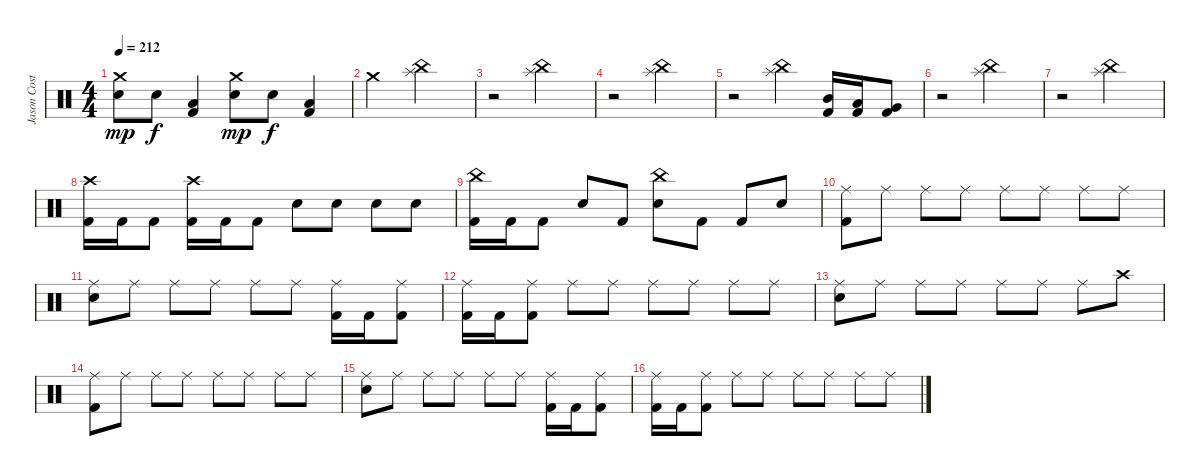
\track ("Jason Costa" "Jason Cost") {instrument percussion}
\staff {score}
\articulation defaults
\ts (4 4)
\tempo 212
\clef neutral
\ks c
("Crash medium (hit)" "Electric Snare (hit)").8{dy mp} "Electric Snare (hit)".8{dy f} ("Low Tom (hit)" "Kick (hit) 2").4 ("Crash medium (hit)" "Electric Snare (hit)").8{dy mp} "Electric Snare (hit)".8{dy f} ("Low Tom (hit)" "Kick (hit) 2").4 |
"Crash medium (hit)".2 ("Splash (hit)" "China (hit)").2 |
r.2 ("Splash (hit)" "China (hit)").2 |
r.2 ("Splash (hit)" "China (hit)").2 |
r.2 ("Splash (hit)" "China (hit)").4 ("Mid Tom (hit)" "Kick (hit) 2").16 ("Low Tom (hit)" "Kick (hit) 2").16 ("Very Low Tom (hit)" "Kick (hit) 2").8 |
r.2 ("Splash (hit)" "China (hit)").2 |
r.2 ("Splash (hit)" "China (hit)").2 |
("Crash high (hit)" "Kick (hit) 2").16 "Kick (hit) 2".16 "Kick (hit) 2".8 ("Crash high (hit)" "Kick (hit) 2").16 "Kick (hit) 2".16 "Kick (hit) 2".8 "Electric Snare (hit)".8 "Electric Snare (hit)".8 "Electric Snare (hit)".8 "Electric Snare (hit)".8 |
("China (hit)" "Kick (hit) 2").16 "Kick (hit) 2".16 "Kick (hit) 2".8 "Electric Snare (hit)".8 "Kick (hit) 2".8 ("China (hit)" "Electric Snare (hit)").8 "Kick (hit) 2".8 "Kick (hit) 2".8 "Electric Snare (hit)".8 |
("Ride (middle)" "Kick (hit) 2").8 "Ride (middle)".8 "Ride (middle)".8 "Ride (middle)".8 "Ride (middle)".8 "Ride (middle)".8 "Ride (middle)".8 "Ride (middle)".8 |
("Ride (middle)" "Electric Snare (hit)").8 "Ride (middle)".8 "Ride (middle)".8 "Ride (middle)".8 "Ride (middle)".8 "Ride (middle)".8 ("Ride (middle)" "Kick (hit) 2").16 "Kick (hit) 2".16 ("Ride (middle)" "Kick (hit) 2").8 |
("Ride (middle)" "Kick (hit) 2").16 "Kick (hit) 2".16 ("Ride (middle)" "Kick (hit) 2").8 "Ride (middle)".8 "Ride (middle)".8 "Ride (middle)".8 "Ride (middle)".8 "Ride (middle)".8 "Ride (middle)".8 |
("Ride (middle)" "Electric Snare (hit)").8 "Ride (middle)".8 "Ride (middle)".8 "Ride (middle)".8 "Ride (middle)".8 "Ride (middle)".8 "Ride (middle)".8 "Crash high (hit)".8 |
("Ride (middle)" "Kick (hit) 2").8 "Ride (middle)".8 "Ride (middle)".8 "Ride (middle)".8 "Ride (middle)".8 "Ride (middle)".8 "Ride (middle)".8 "Ride (middle)".8 |
("Ride (middle)" "Electric Snare (hit)").8 "Ride (middle)".8 "Ride (middle)".8 "Ride (middle)".8 "Ride (middle)".8 "Ride (middle)".8 ("Ride (middle)" "Kick (hit) 2").16 "Kick (hit) 2".16 ("Ride (middle)" "Kick (hit) 2").8 |
("Ride (middle)" "Kick (hit) 2").16 "Kick (hit) 2".16 ("Ride (middle)" "Kick (hit) 2").8 "Ride (middle)".8 "Ride (middle)".8 "Ride (middle)".8 "Ride (middle)".8 "Ride (middle)".8 "Ride (middle)".8
